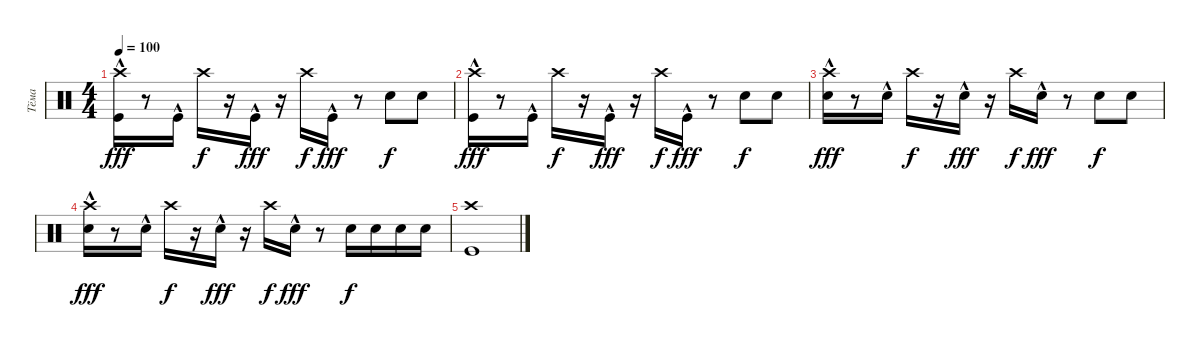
\track ("Тёма" "Тёма") {instrument percussion}
\staff {score}
\articulation defaults
\ts (4 4)
\tempo 100
\clef neutral
\ks c
("Crash high (hit)" "Kick (hit)"{hac}).16{dy fff} r.8 "Kick (hit)"{hac}.16 "Crash high (hit)".16{dy f} r.16 "Kick (hit)"{hac}.16{dy fff} r.16 "Crash high (hit)".16{dy f} "Kick (hit)"{hac}.16{dy fff} r.8 "Snare (hit) 2".8{dy f} "Snare (hit) 2".8 |
("Crash high (hit)" "Kick (hit)"{hac}).16{dy fff} r.8 "Kick (hit)"{hac}.16 "Crash high (hit)".16{dy f} r.16 "Kick (hit)"{hac}.16{dy fff} r.16 "Crash high (hit)".16{dy f} "Kick (hit)"{hac}.16{dy fff} r.8 "Snare (hit) 2".8{dy f} "Snare (hit) 2".8 |
("Crash high (hit)" "Snare (hit) 2"{hac}).16{dy fff} r.8 "Snare (hit) 2"{hac}.16 "Crash high (hit)".16{dy f} r.16 "Snare (hit) 2"{hac}.16{dy fff} r.16 "Crash high (hit)".16{dy f} "Snare (hit) 2"{hac}.16{dy fff} r.8 "Snare (hit) 2".8{dy f} "Snare (hit) 2".8 |
("Crash high (hit)" "Snare (hit) 2"{hac}).16{dy fff} r.8 "Snare (hit) 2"{hac}.16 "Crash high (hit)".16{dy f} r.16 "Snare (hit) 2"{hac}.16{dy fff} r.16 "Crash high (hit)".16{dy f} "Snare (hit) 2"{hac}.16{dy fff} r.8 "Snare (hit) 2".16{dy f} "Snare (hit) 2".16 "Snare (hit) 2".16 "Snare (hit) 2".16 |
("Crash high (hit)" "Kick (hit)").1
